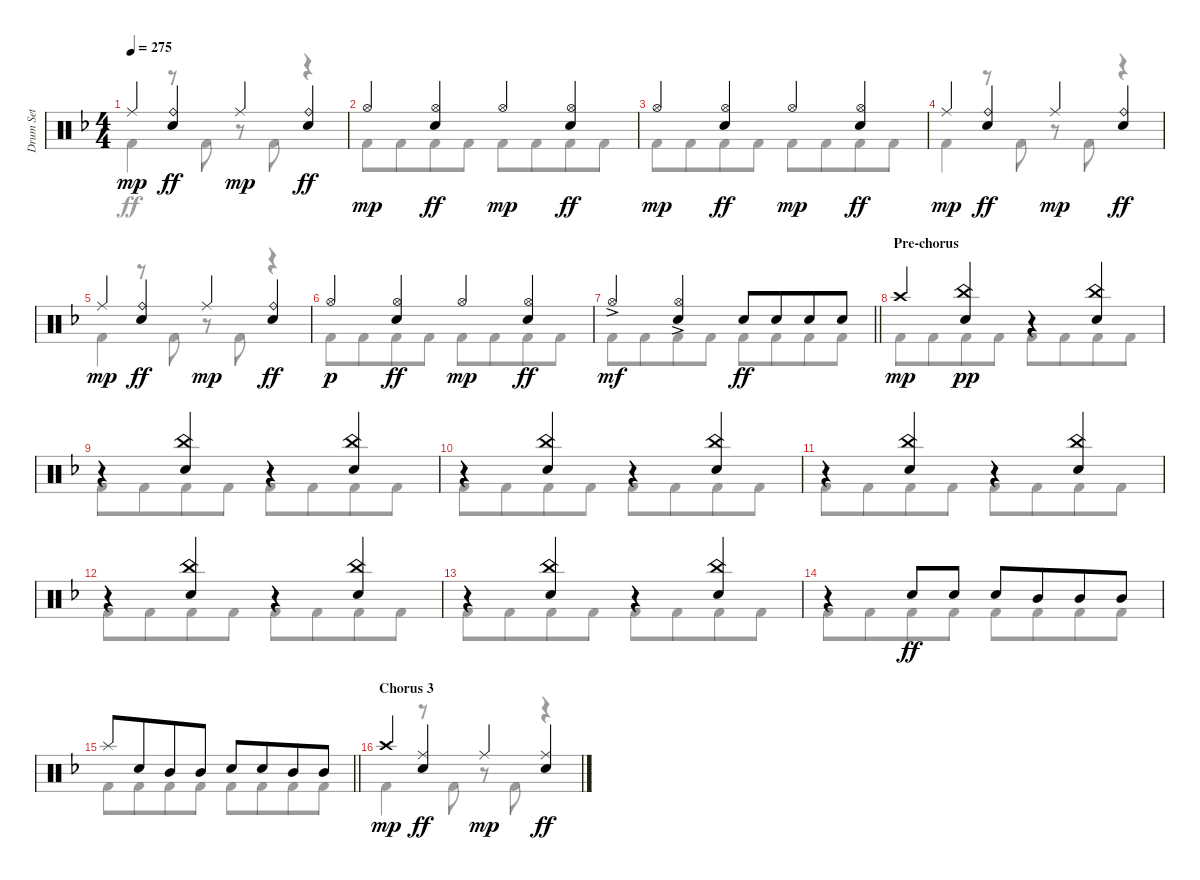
\track ("Drum Set" "Drum Set") {instrument percussion}
\staff {score}
\articulation defaults
\voice
\ts (4 4)
\tempo 275
\clef neutral
\ks dminor "Ride (middle)".4{dy mp}
("Ride (bell)" "Electric Snare (hit)").4{dy ff} "Ride (middle)".4{dy mp} ("Ride (bell)" "Electric Snare (hit)").4{dy ff} |
"Hi-Hat (open)".4{dy mp} ("Hi-Hat (open)" "Electric Snare (hit)").4{dy ff} "Hi-Hat (open)".4{dy mp} ("Hi-Hat (open)" "Electric Snare (hit)").4{dy ff} |
"Hi-Hat (open)".4{dy mp} ("Hi-Hat (open)" "Electric Snare (hit)").4{dy ff} "Hi-Hat (open)".4{dy mp} ("Hi-Hat (open)" "Electric Snare (hit)").4{dy ff} |
"Ride (middle)".4{dy mp} ("Ride (bell)" "Electric Snare (hit)").4{dy ff} "Ride (middle)".4{dy mp} ("Ride (bell)" "Electric Snare (hit)").4{dy ff} |
"Ride (middle)".4{dy mp} ("Ride (bell)" "Electric Snare (hit)").4{dy ff} "Ride (middle)".4{dy mp} ("Ride (bell)" "Electric Snare (hit)").4{dy ff} |
"Hi-Hat (open)".4{dy p} ("Hi-Hat (open)" "Electric Snare (hit)").4{dy ff} "Hi-Hat (open)".4{dy mp} ("Hi-Hat (open)" "Electric Snare (hit)").4{dy ff} |
\barLineRight lightlight "Hi-Hat (open)"{ac}.4{dy mf}
("Electric Snare (hit)" "Hi-Hat (open)"{ac}).4 "Electric Snare (hit)".8{dy ff} "Electric Snare (hit)".8{beam merge} "Electric Snare (hit)".8 "Electric Snare (hit)".8 |
\section ("" "Pre-chorus")
"Crash high (hit)".4{dy mp} ("Electric Snare (hit)" "China (hit)").4{dy pp} r.4 ("Electric Snare (hit)" "China (hit)").4 |
r.4 ("Electric Snare (hit)" "China (hit)").4 r.4 ("Electric Snare (hit)" "China (hit)").4 |
r.4 ("Electric Snare (hit)" "China (hit)").4 r.4 ("Electric Snare (hit)" "China (hit)").4 |
r.4 ("Electric Snare (hit)" "China (hit)").4 r.4 ("Electric Snare (hit)" "China (hit)").4 |
r.4 ("Electric Snare (hit)" "China (hit)").4 r.4 ("Electric Snare (hit)" "China (hit)").4 |
r.4 ("Electric Snare (hit)" "China (hit)").4 r.4 ("Electric Snare (hit)" "China (hit)").4 |
r.4 "Electric Snare (hit)".8{dy ff} "Electric Snare (hit)".8 "Electric Snare (hit)".8 "Mid Tom (hit)".8{beam merge} "Mid Tom (hit)".8 "Mid Tom (hit)".8 |
\barLineRight lightlight "Splash (hit)".8 "Electric Snare (hit)".8{beam merge} "Mid Tom (hit)".8 "Mid Tom (hit)".8 "Electric Snare (hit)".8 "Electric Snare (hit)".8{beam merge} "Mid Tom (hit)".8 "Mid Tom (hit)".8
|
\section ("" "Chorus 3")
"Crash high (hit)".4{dy mp} ("Ride (middle)" "Electric Snare (hit)").4{dy ff} "Ride (middle)".4{dy mp} ("Ride (middle)" "Electric Snare (hit)").4{dy ff}
\voice
\clef neutral
\ottava regular
\simile none
\ks dminor "Kick (hit) 2".4{dy ff}
r.8 "Kick (hit) 2".8 r.8 "Kick (hit) 2".8 r.4 |
"Kick (hit) 2".8 "Kick (hit) 2".8{beam merge} "Kick (hit) 2".8 "Kick (hit) 2".8 "Kick (hit) 2".8 "Kick (hit) 2".8{beam merge} "Kick (hit) 2".8 "Kick (hit) 2".8 |
"Kick (hit) 2".8 "Kick (hit) 2".8{beam merge} "Kick (hit) 2".8 "Kick (hit) 2".8 "Kick (hit) 2".8 "Kick (hit) 2".8{beam merge} "Kick (hit) 2".8 "Kick (hit) 2".8 |
"Kick (hit) 2".4 r.8 "Kick (hit) 2".8 r.8 "Kick (hit) 2".8 r.4 |
"Kick (hit) 2".4 r.8 "Kick (hit) 2".8 r.8 "Kick (hit) 2".8 r.4 |
"Kick (hit) 2".8 "Kick (hit) 2".8{beam merge} "Kick (hit) 2".8 "Kick (hit) 2".8 "Kick (hit) 2".8 "Kick (hit) 2".8{beam merge} "Kick (hit) 2".8 "Kick (hit) 2".8 |
\barLineRight lightlight "Kick (hit) 2".8 "Kick (hit) 2".8{beam merge} "Kick (hit) 2".8 "Kick (hit) 2".8 "Kick (hit) 2".8 "Kick (hit) 2".8{beam merge} "Kick (hit) 2".8 "Kick (hit) 2".8
|
"Kick (hit) 2".8 "Kick (hit) 2".8{beam merge} "Kick (hit) 2".8 "Kick (hit) 2".8 "Kick (hit) 2".8 "Kick (hit) 2".8{beam merge} "Kick (hit) 2".8 "Kick (hit) 2".8 |
"Kick (hit) 2".8 "Kick (hit) 2".8{beam merge} "Kick (hit) 2".8 "Kick (hit) 2".8 "Kick (hit) 2".8 "Kick (hit) 2".8{beam merge} "Kick (hit) 2".8 "Kick (hit) 2".8 |
"Kick (hit) 2".8 "Kick (hit) 2".8{beam merge} "Kick (hit) 2".8 "Kick (hit) 2".8 "Kick (hit) 2".8 "Kick (hit) 2".8{beam merge} "Kick (hit) 2".8 "Kick (hit) 2".8 |
"Kick (hit) 2".8 "Kick (hit) 2".8{beam merge} "Kick (hit) 2".8 "Kick (hit) 2".8 "Kick (hit) 2".8 "Kick (hit) 2".8{beam merge} "Kick (hit) 2".8 "Kick (hit) 2".8 |
"Kick (hit) 2".8 "Kick (hit) 2".8{beam merge} "Kick (hit) 2".8 "Kick (hit) 2".8 "Kick (hit) 2".8 "Kick (hit) 2".8{beam merge} "Kick (hit) 2".8 "Kick (hit) 2".8 |
"Kick (hit) 2".8 "Kick (hit) 2".8{beam merge} "Kick (hit) 2".8 "Kick (hit) 2".8 "Kick (hit) 2".8 "Kick (hit) 2".8{beam merge} "Kick (hit) 2".8 "Kick (hit) 2".8 |
"Kick (hit) 2".8 "Kick (hit) 2".8{beam merge} "Kick (hit) 2".8 "Kick (hit) 2".8 "Kick (hit) 2".8 "Kick (hit) 2".8{beam merge} "Kick (hit) 2".8 "Kick (hit) 2".8 |
\barLineRight lightlight "Kick (hit) 2".8 "Kick (hit) 2".8{beam merge} "Kick (hit) 2".8 "Kick (hit) 2".8 "Kick (hit) 2".8 "Kick (hit) 2".8{beam merge} "Kick (hit) 2".8 "Kick (hit) 2".8
|
"Kick (hit) 2".4 r.8 "Kick (hit) 2".8 r.8 "Kick (hit) 2".8 r.4
